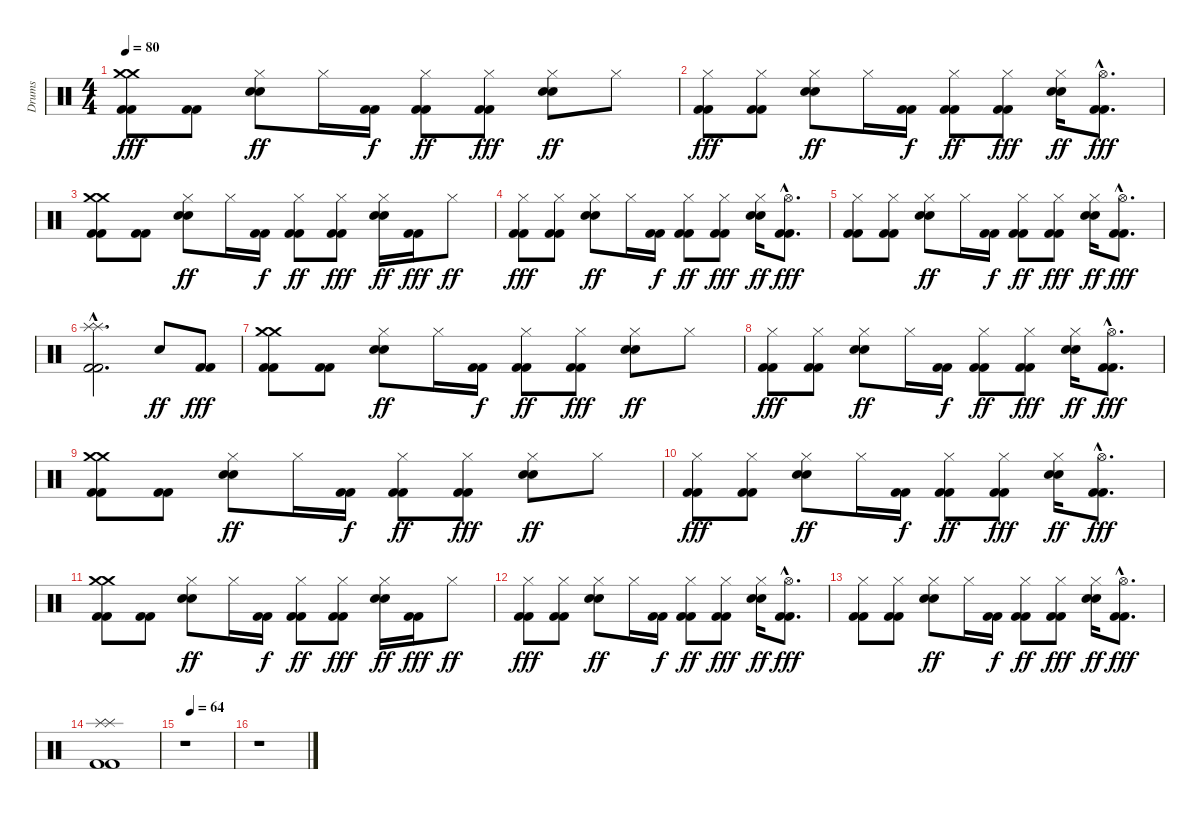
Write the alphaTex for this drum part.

\track ("Drums" "Drums") {instrument percussion}
\staff {score}
\articulation defaults
\ts (4 4)
\tempo 80
\clef neutral
\ks c
("Crash medium (hit)" "Crash medium (hit)" "Kick (hit) 2" "Kick (hit) 2").8{dy fff} ("Kick (hit) 2" "Kick (hit) 2").8 ("Hi-Hat (closed)" "Electric Snare (hit)" "Electric Snare (hit)").8{dy ff} "Hi-Hat (closed)".16 ("Kick (hit) 2" "Kick (hit) 2").16{dy f} ("Hi-Hat (closed)" "Kick (hit) 2" "Kick (hit) 2").8{dy ff} ("Hi-Hat (closed)" "Kick (hit) 2" "Kick (hit) 2").8{dy fff} ("Hi-Hat (closed)" "Electric Snare (hit)" "Electric Snare (hit)").8{dy ff} "Hi-Hat (closed)".8 |
("Hi-Hat (closed)" "Kick (hit) 2" "Kick (hit) 2").8{dy fff} ("Hi-Hat (closed)" "Kick (hit) 2" "Kick (hit) 2").8 ("Hi-Hat (closed)" "Electric Snare (hit)" "Electric Snare (hit)").8{dy ff} "Hi-Hat (closed)".16 ("Kick (hit) 2" "Kick (hit) 2").16{dy f} ("Hi-Hat (closed)" "Kick (hit) 2" "Kick (hit) 2").8{dy ff} ("Hi-Hat (closed)" "Kick (hit) 2" "Kick (hit) 2").8{dy fff} ("Hi-Hat (closed)" "Electric Snare (hit)" "Electric Snare (hit)").16{dy ff} ("Hi-Hat (open)"{hac} "Kick (hit) 2"{hac} "Kick (hit) 2"{hac}).8{d dy fff} |
("Crash medium (hit)" "Crash medium (hit)" "Kick (hit) 2" "Kick (hit) 2").8 ("Kick (hit) 2" "Kick (hit) 2").8 ("Hi-Hat (closed)" "Electric Snare (hit)" "Electric Snare (hit)").8{dy ff} "Hi-Hat (closed)".16 ("Kick (hit) 2" "Kick (hit) 2").16{dy f} ("Hi-Hat (closed)" "Kick (hit) 2" "Kick (hit) 2").8{dy ff} ("Hi-Hat (closed)" "Kick (hit) 2" "Kick (hit) 2").8{dy fff} ("Hi-Hat (closed)" "Electric Snare (hit)" "Electric Snare (hit)").16{dy ff} ("Kick (hit) 2" "Kick (hit) 2").16{dy fff} "Hi-Hat (closed)".8{dy ff} |
("Hi-Hat (closed)" "Kick (hit) 2" "Kick (hit) 2").8{dy fff} ("Hi-Hat (closed)" "Kick (hit) 2" "Kick (hit) 2").8 ("Hi-Hat (closed)" "Electric Snare (hit)" "Electric Snare (hit)").8{dy ff} "Hi-Hat (closed)".16 ("Kick (hit) 2" "Kick (hit) 2").16{dy f} ("Hi-Hat (closed)" "Kick (hit) 2" "Kick (hit) 2").8{dy ff} ("Hi-Hat (closed)" "Kick (hit) 2" "Kick (hit) 2").8{dy fff} ("Hi-Hat (closed)" "Electric Snare (hit)" "Electric Snare (hit)").16{dy ff} ("Hi-Hat (open)"{hac} "Kick (hit) 2"{hac} "Kick (hit) 2"{hac}).8{d dy fff} |
("Hi-Hat (closed)" "Kick (hit) 2" "Kick (hit) 2").8 ("Hi-Hat (closed)" "Kick (hit) 2" "Kick (hit) 2").8 ("Hi-Hat (closed)" "Electric Snare (hit)" "Electric Snare (hit)").8{dy ff} "Hi-Hat (closed)".16 ("Kick (hit) 2" "Kick (hit) 2").16{dy f} ("Hi-Hat (closed)" "Kick (hit) 2" "Kick (hit) 2").8{dy ff} ("Hi-Hat (closed)" "Kick (hit) 2" "Kick (hit) 2").8{dy fff} ("Hi-Hat (closed)" "Electric Snare (hit)" "Electric Snare (hit)").16{dy ff} ("Hi-Hat (open)"{hac} "Kick (hit) 2"{hac} "Kick (hit) 2"{hac}).8{d dy fff} |
("Splash (hit)"{hac} "Splash (hit)"{hac} "Kick (hit) 2"{hac} "Kick (hit) 2"{hac}).2{d} "Electric Snare (hit)".8{dy ff} ("Kick (hit) 2" "Kick (hit) 2").8{dy fff} |
("Crash medium (hit)" "Crash medium (hit)" "Kick (hit) 2" "Kick (hit) 2").8 ("Kick (hit) 2" "Kick (hit) 2").8 ("Hi-Hat (closed)" "Electric Snare (hit)" "Electric Snare (hit)").8{dy ff} "Hi-Hat (closed)".16 ("Kick (hit) 2" "Kick (hit) 2").16{dy f} ("Hi-Hat (closed)" "Kick (hit) 2" "Kick (hit) 2").8{dy ff} ("Hi-Hat (closed)" "Kick (hit) 2" "Kick (hit) 2").8{dy fff} ("Hi-Hat (closed)" "Electric Snare (hit)" "Electric Snare (hit)").8{dy ff} "Hi-Hat (closed)".8 |
("Hi-Hat (closed)" "Kick (hit) 2" "Kick (hit) 2").8{dy fff} ("Hi-Hat (closed)" "Kick (hit) 2" "Kick (hit) 2").8 ("Hi-Hat (closed)" "Electric Snare (hit)" "Electric Snare (hit)").8{dy ff} "Hi-Hat (closed)".16 ("Kick (hit) 2" "Kick (hit) 2").16{dy f} ("Hi-Hat (closed)" "Kick (hit) 2" "Kick (hit) 2").8{dy ff} ("Hi-Hat (closed)" "Kick (hit) 2" "Kick (hit) 2").8{dy fff} ("Hi-Hat (closed)" "Electric Snare (hit)" "Electric Snare (hit)").16{dy ff} ("Hi-Hat (open)"{hac} "Kick (hit) 2"{hac} "Kick (hit) 2"{hac}).8{d dy fff} |
("Crash medium (hit)" "Crash medium (hit)" "Kick (hit) 2" "Kick (hit) 2").8 ("Kick (hit) 2" "Kick (hit) 2").8 ("Hi-Hat (closed)" "Electric Snare (hit)" "Electric Snare (hit)").8{dy ff} "Hi-Hat (closed)".16 ("Kick (hit) 2" "Kick (hit) 2").16{dy f} ("Hi-Hat (closed)" "Kick (hit) 2" "Kick (hit) 2").8{dy ff} ("Hi-Hat (closed)" "Kick (hit) 2" "Kick (hit) 2").8{dy fff} ("Hi-Hat (closed)" "Electric Snare (hit)" "Electric Snare (hit)").8{dy ff} "Hi-Hat (closed)".8 |
("Hi-Hat (closed)" "Kick (hit) 2" "Kick (hit) 2").8{dy fff} ("Hi-Hat (closed)" "Kick (hit) 2" "Kick (hit) 2").8 ("Hi-Hat (closed)" "Electric Snare (hit)" "Electric Snare (hit)").8{dy ff} "Hi-Hat (closed)".16 ("Kick (hit) 2" "Kick (hit) 2").16{dy f} ("Hi-Hat (closed)" "Kick (hit) 2" "Kick (hit) 2").8{dy ff} ("Hi-Hat (closed)" "Kick (hit) 2" "Kick (hit) 2").8{dy fff} ("Hi-Hat (closed)" "Electric Snare (hit)" "Electric Snare (hit)").16{dy ff} ("Hi-Hat (open)"{hac} "Kick (hit) 2"{hac} "Kick (hit) 2"{hac}).8{d dy fff} |
("Crash medium (hit)" "Crash medium (hit)" "Kick (hit) 2" "Kick (hit) 2").8 ("Kick (hit) 2" "Kick (hit) 2").8 ("Hi-Hat (closed)" "Electric Snare (hit)" "Electric Snare (hit)").8{dy ff} "Hi-Hat (closed)".16 ("Kick (hit) 2" "Kick (hit) 2").16{dy f} ("Hi-Hat (closed)" "Kick (hit) 2" "Kick (hit) 2").8{dy ff} ("Hi-Hat (closed)" "Kick (hit) 2" "Kick (hit) 2").8{dy fff} ("Hi-Hat (closed)" "Electric Snare (hit)" "Electric Snare (hit)").16{dy ff} ("Kick (hit) 2" "Kick (hit) 2").16{dy fff} "Hi-Hat (closed)".8{dy ff} |
("Hi-Hat (closed)" "Kick (hit) 2" "Kick (hit) 2").8{dy fff} ("Hi-Hat (closed)" "Kick (hit) 2" "Kick (hit) 2").8 ("Hi-Hat (closed)" "Electric Snare (hit)" "Electric Snare (hit)").8{dy ff} "Hi-Hat (closed)".16 ("Kick (hit) 2" "Kick (hit) 2").16{dy f} ("Hi-Hat (closed)" "Kick (hit) 2" "Kick (hit) 2").8{dy ff} ("Hi-Hat (closed)" "Kick (hit) 2" "Kick (hit) 2").8{dy fff} ("Hi-Hat (closed)" "Electric Snare (hit)" "Electric Snare (hit)").16{dy ff} ("Hi-Hat (open)"{hac} "Kick (hit) 2"{hac} "Kick (hit) 2"{hac}).8{d dy fff} |
("Hi-Hat (closed)" "Kick (hit) 2" "Kick (hit) 2").8 ("Hi-Hat (closed)" "Kick (hit) 2" "Kick (hit) 2").8 ("Hi-Hat (closed)" "Electric Snare (hit)" "Electric Snare (hit)").8{dy ff} "Hi-Hat (closed)".16 ("Kick (hit) 2" "Kick (hit) 2").16{dy f} ("Hi-Hat (closed)" "Kick (hit) 2" "Kick (hit) 2").8{dy ff} ("Hi-Hat (closed)" "Kick (hit) 2" "Kick (hit) 2").8{dy fff} ("Hi-Hat (closed)" "Electric Snare (hit)" "Electric Snare (hit)").16{dy ff} ("Hi-Hat (open)"{hac} "Kick (hit) 2"{hac} "Kick (hit) 2"{hac}).8{d dy fff} |
("Splash (hit)" "Splash (hit)" "Kick (hit) 2" "Kick (hit) 2").1 |
\tempo (64 0.125)
r.1 |
r.1
